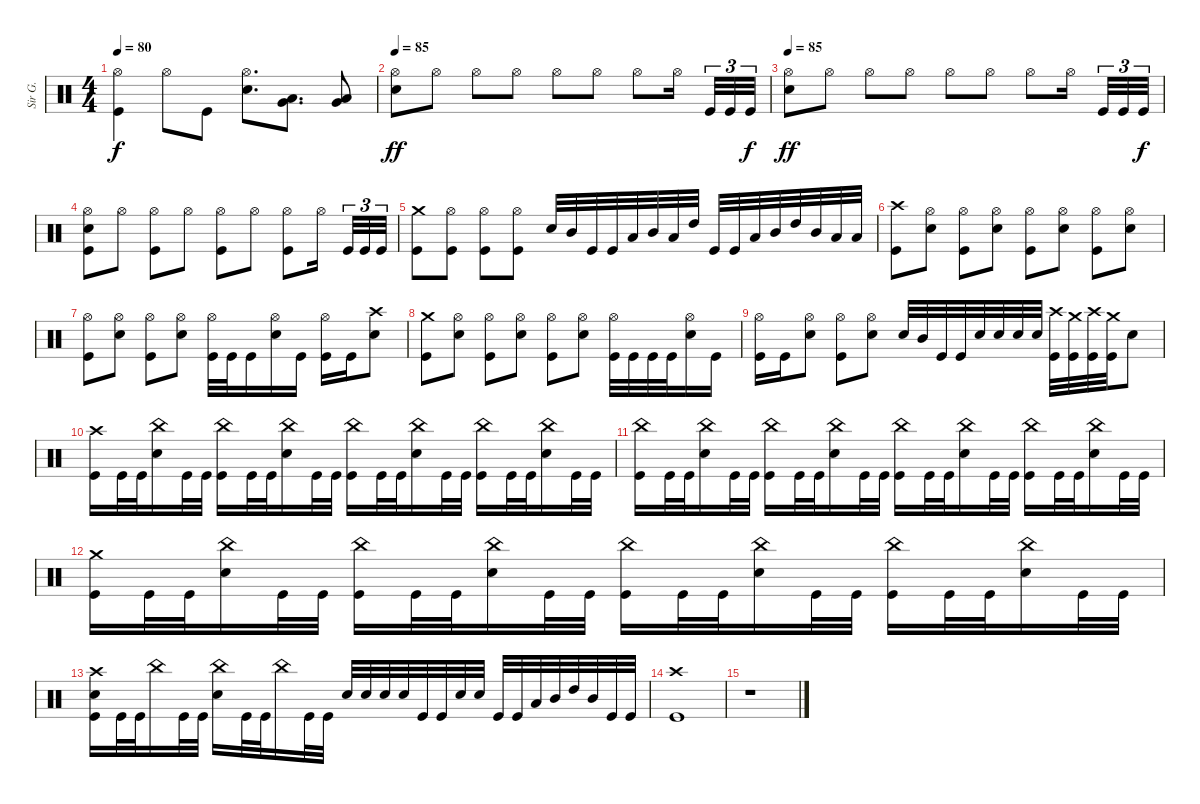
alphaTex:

\track ("Sir G." "Sir G.") {instrument percussion}
\staff {score}
\articulation defaults
\ts (4 4)
\tempo 80
\clef neutral
\ks c
("Hi-Hat (open)" "Kick (hit)").4{dy f} "Hi-Hat (open)".8 "Kick (hit)".8 ("Hi-Hat (open)" "Electric Snare (hit)").8{d} ("Low Tom (hit)" "Very Low Tom (hit)").8{d} ("Low Tom (hit)" "Very Low Tom (hit)").8 |
\tempo 85
("Hi-Hat (open)" "Electric Snare (hit)").8{dy ff} "Hi-Hat (open)".8 "Hi-Hat (open)".8 "Hi-Hat (open)".8 "Hi-Hat (open)".8 "Hi-Hat (open)".8 "Hi-Hat (open)".8 "Hi-Hat (open)".16{beam splitsecondary} "Kick (hit)".32{tu (3 2)} "Kick (hit)".32{tu (3 2)} "Kick (hit)".32{tu (3 2) dy f} |
\tempo 85
("Hi-Hat (open)" "Electric Snare (hit)").8{dy ff} "Hi-Hat (open)".8 "Hi-Hat (open)".8 "Hi-Hat (open)".8 "Hi-Hat (open)".8 "Hi-Hat (open)".8 "Hi-Hat (open)".8 "Hi-Hat (open)".16{beam splitsecondary} "Kick (hit)".32{tu (3 2)} "Kick (hit)".32{tu (3 2)} "Kick (hit)".32{tu (3 2) dy f} |
("Hi-Hat (open)" "Electric Snare (hit)" "Kick (hit)").8 "Hi-Hat (open)".8 ("Hi-Hat (open)" "Kick (hit)").8 "Hi-Hat (open)".8 ("Hi-Hat (open)" "Kick (hit)").8 "Hi-Hat (open)".8 ("Hi-Hat (open)" "Kick (hit)").8 "Hi-Hat (open)".16{beam splitsecondary} "Kick (hit)".32{tu (3 2)} "Kick (hit)".32{tu (3 2)} "Kick (hit)".32{tu (3 2)} |
("Crash medium (hit)" "Kick (hit)").8 ("Hi-Hat (open)" "Kick (hit)").8 ("Hi-Hat (open)" "Kick (hit)").8 ("Hi-Hat (open)" "Kick (hit)").8 "Electric Snare (hit)".32 "Mid Tom (hit)".32 "Kick (hit)".32 "Kick (hit)".32 "Low Tom (hit)".32 "Mid Tom (hit)".32 "Low Tom (hit)".32 "High Tom (hit)".32 "Kick (hit)".32 "Kick (hit)".32 "Low Tom (hit)".32 "Mid Tom (hit)".32 "High Tom (hit)".32 "Mid Tom (hit)".32 "Low Tom (hit)".32 "Low Tom (hit)".32 |
("Crash high (hit)" "Kick (hit)").8 ("Hi-Hat (open)" "Electric Snare (hit)").8 ("Hi-Hat (open)" "Kick (hit)").8 ("Hi-Hat (open)" "Electric Snare (hit)").8 ("Hi-Hat (open)" "Kick (hit)").8 ("Hi-Hat (open)" "Electric Snare (hit)").8 ("Hi-Hat (open)" "Kick (hit)").8 ("Hi-Hat (open)" "Electric Snare (hit)").8 |
("Hi-Hat (open)" "Kick (hit)").8 ("Hi-Hat (open)" "Electric Snare (hit)").8 ("Hi-Hat (open)" "Kick (hit)").8 ("Hi-Hat (open)" "Electric Snare (hit)").8 ("Hi-Hat (open)" "Kick (hit)").32 "Kick (hit)".32 "Kick (hit)".16 ("Hi-Hat (open)" "Electric Snare (hit)").16 "Kick (hit)".16 ("Hi-Hat (open)" "Kick (hit)").16 "Kick (hit)".16 ("Crash high (hit)" "Electric Snare (hit)").8 |
("Crash medium (hit)" "Kick (hit)").8 ("Hi-Hat (open)" "Electric Snare (hit)").8 ("Hi-Hat (open)" "Kick (hit)").8 ("Hi-Hat (open)" "Electric Snare (hit)").8 ("Hi-Hat (open)" "Kick (hit)").8 ("Hi-Hat (open)" "Electric Snare (hit)").8 ("Hi-Hat (open)" "Kick (hit)").32 "Kick (hit)".32 "Kick (hit)".32 "Kick (hit)".32 ("Hi-Hat (open)" "Electric Snare (hit)").16 "Kick (hit)".16 |
("Hi-Hat (open)" "Kick (hit)").16 "Kick (hit)".16 ("Hi-Hat (open)" "Electric Snare (hit)").8 ("Hi-Hat (open)" "Kick (hit)").8 ("Hi-Hat (open)" "Electric Snare (hit)").8 "Electric Snare (hit)".32 "Mid Tom (hit)".32 "Kick (hit)".32 "Kick (hit)".32 "Electric Snare (hit)".32 "Electric Snare (hit)".32 "Electric Snare (hit)".32 "Electric Snare (hit)".32 ("Crash high (hit)" "Kick (hit)").32 ("Crash medium (hit)" "Kick (hit)").32 ("Crash high (hit)" "Kick (hit)").32 ("Crash medium (hit)" "Kick (hit)").32 "Electric Snare (hit)".8 |
("Crash high (hit)" "Kick (hit)").16 "Kick (hit)".32 "Kick (hit)".32 ("China (hit)" "Electric Snare (hit)").16 "Kick (hit)".32 "Kick (hit)".32 ("China (hit)" "Kick (hit)").16 "Kick (hit)".32 "Kick (hit)".32 ("China (hit)" "Electric Snare (hit)").16 "Kick (hit)".32 "Kick (hit)".32 ("China (hit)" "Kick (hit)").16 "Kick (hit)".32 "Kick (hit)".32 ("China (hit)" "Electric Snare (hit)").16 "Kick (hit)".32 "Kick (hit)".32 ("China (hit)" "Kick (hit)").16 "Kick (hit)".32 "Kick (hit)".32 ("China (hit)" "Electric Snare (hit)").16 "Kick (hit)".32 "Kick (hit)".32 |
("China (hit)" "Kick (hit)").16 "Kick (hit)".32 "Kick (hit)".32 ("China (hit)" "Electric Snare (hit)").16 "Kick (hit)".32 "Kick (hit)".32 ("China (hit)" "Kick (hit)").16 "Kick (hit)".32 "Kick (hit)".32 ("China (hit)" "Electric Snare (hit)").16 "Kick (hit)".32 "Kick (hit)".32 ("China (hit)" "Kick (hit)").16 "Kick (hit)".32 "Kick (hit)".32 ("China (hit)" "Electric Snare (hit)").16 "Kick (hit)".32 "Kick (hit)".32 ("China (hit)" "Kick (hit)").16 "Kick (hit)".32 "Kick (hit)".32 ("China (hit)" "Electric Snare (hit)").16 "Kick (hit)".32 "Kick (hit)".32 |
("Crash medium (hit)" "Kick (hit)").16 "Kick (hit)".32 "Kick (hit)".32 ("China (hit)" "Electric Snare (hit)").16 "Kick (hit)".32 "Kick (hit)".32 ("China (hit)" "Kick (hit)").16 "Kick (hit)".32 "Kick (hit)".32 ("China (hit)" "Electric Snare (hit)").16 "Kick (hit)".32 "Kick (hit)".32 ("China (hit)" "Kick (hit)").16 "Kick (hit)".32 "Kick (hit)".32 ("China (hit)" "Electric Snare (hit)").16 "Kick (hit)".32 "Kick (hit)".32 ("China (hit)" "Kick (hit)").16 "Kick (hit)".32 "Kick (hit)".32 ("China (hit)" "Electric Snare (hit)").16 "Kick (hit)".32 "Kick (hit)".32 |
("Crash high (hit)" "Electric Snare (hit)" "Kick (hit)").16 "Kick (hit)".32 "Kick (hit)".32 "China (hit)".16 "Kick (hit)".32 "Kick (hit)".32 ("China (hit)" "Electric Snare (hit)").16 "Kick (hit)".32 "Kick (hit)".32 "China (hit)".16 "Kick (hit)".32 "Kick (hit)".32 "Electric Snare (hit)".32 "Electric Snare (hit)".32 "Electric Snare (hit)".32 "Electric Snare (hit)".32 "Kick (hit)".32 "Kick (hit)".32 "Electric Snare (hit)".32 "Electric Snare (hit)".32 "Kick (hit)".32 "Kick (hit)".32 "Low Tom (hit)".32 "Mid Tom (hit)".32 "High Tom (hit)".32 "Mid Tom (hit)".32 "Kick (hit)".32 "Kick (hit)".32 |
("Crash high (hit)" "Kick (hit)").1 |
r.1
